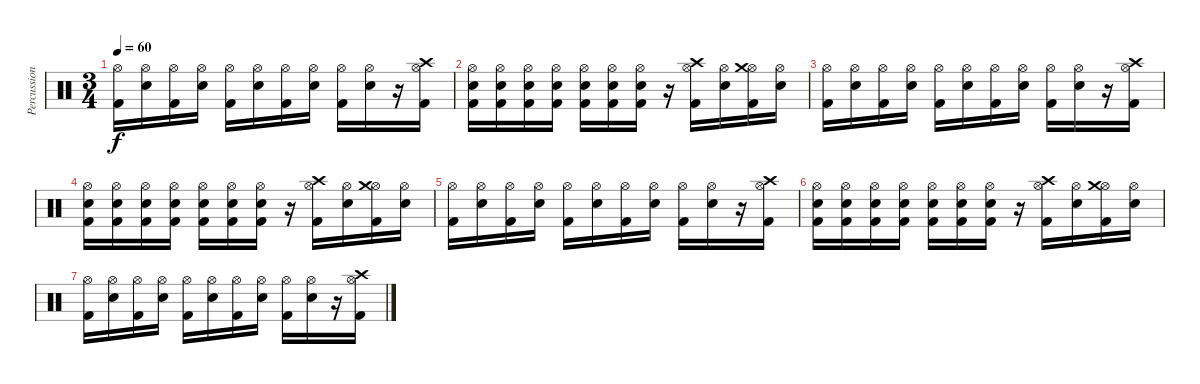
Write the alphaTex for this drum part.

\track ("Percussion" "Percussion") {instrument percussion}
\staff {score}
\articulation defaults
\ts (3 4)
\tempo 60
\clef neutral
\ks c
("Hi-Hat (open)" "Kick (hit) 2").16{dy f} ("Hi-Hat (open)" "Electric Snare (hit)").16 ("Hi-Hat (open)" "Kick (hit) 2").16 ("Hi-Hat (open)" "Electric Snare (hit)").16 ("Hi-Hat (open)" "Kick (hit) 2").16 ("Hi-Hat (open)" "Electric Snare (hit)").16 ("Hi-Hat (open)" "Kick (hit) 2").16 ("Hi-Hat (open)" "Electric Snare (hit)").16 ("Hi-Hat (open)" "Kick (hit) 2").16 ("Hi-Hat (open)" "Electric Snare (hit)").16 r.16 ("Hi-Hat (open)" "Crash high (hit)" "Kick (hit) 2").16 |
("Hi-Hat (open)" "Electric Snare (hit)" "Kick (hit) 2").16 ("Hi-Hat (open)" "Electric Snare (hit)" "Kick (hit) 2").16 ("Hi-Hat (open)" "Electric Snare (hit)" "Kick (hit) 2").16 ("Hi-Hat (open)" "Electric Snare (hit)" "Kick (hit) 2").16 ("Hi-Hat (open)" "Electric Snare (hit)" "Kick (hit) 2").16 ("Hi-Hat (open)" "Electric Snare (hit)" "Kick (hit) 2").16 ("Hi-Hat (open)" "Electric Snare (hit)" "Kick (hit) 2").16 r.16 ("Hi-Hat (open)" "Crash high (hit)" "Kick (hit) 2").16 ("Hi-Hat (open)" "Electric Snare (hit)").16 ("Hi-Hat (open)" "Crash medium (hit)" "Kick (hit) 2").16 ("Hi-Hat (open)" "Electric Snare (hit)").16 |
("Hi-Hat (open)" "Kick (hit) 2").16 ("Hi-Hat (open)" "Electric Snare (hit)").16 ("Hi-Hat (open)" "Kick (hit) 2").16 ("Hi-Hat (open)" "Electric Snare (hit)").16 ("Hi-Hat (open)" "Kick (hit) 2").16 ("Hi-Hat (open)" "Electric Snare (hit)").16 ("Hi-Hat (open)" "Kick (hit) 2").16 ("Hi-Hat (open)" "Electric Snare (hit)").16 ("Hi-Hat (open)" "Kick (hit) 2").16 ("Hi-Hat (open)" "Electric Snare (hit)").16 r.16 ("Hi-Hat (open)" "Crash high (hit)" "Kick (hit) 2").16 |
("Hi-Hat (open)" "Electric Snare (hit)" "Kick (hit) 2").16 ("Hi-Hat (open)" "Electric Snare (hit)" "Kick (hit) 2").16 ("Hi-Hat (open)" "Electric Snare (hit)" "Kick (hit) 2").16 ("Hi-Hat (open)" "Electric Snare (hit)" "Kick (hit) 2").16 ("Hi-Hat (open)" "Electric Snare (hit)" "Kick (hit) 2").16 ("Hi-Hat (open)" "Electric Snare (hit)" "Kick (hit) 2").16 ("Hi-Hat (open)" "Electric Snare (hit)" "Kick (hit) 2").16 r.16 ("Hi-Hat (open)" "Crash high (hit)" "Kick (hit) 2").16 ("Hi-Hat (open)" "Electric Snare (hit)").16 ("Hi-Hat (open)" "Crash medium (hit)" "Kick (hit) 2").16 ("Hi-Hat (open)" "Electric Snare (hit)").16 |
("Hi-Hat (open)" "Kick (hit) 2").16 ("Hi-Hat (open)" "Electric Snare (hit)").16 ("Hi-Hat (open)" "Kick (hit) 2").16 ("Hi-Hat (open)" "Electric Snare (hit)").16 ("Hi-Hat (open)" "Kick (hit) 2").16 ("Hi-Hat (open)" "Electric Snare (hit)").16 ("Hi-Hat (open)" "Kick (hit) 2").16 ("Hi-Hat (open)" "Electric Snare (hit)").16 ("Hi-Hat (open)" "Kick (hit) 2").16 ("Hi-Hat (open)" "Electric Snare (hit)").16 r.16 ("Hi-Hat (open)" "Crash high (hit)" "Kick (hit) 2").16 |
("Hi-Hat (open)" "Electric Snare (hit)" "Kick (hit) 2").16 ("Hi-Hat (open)" "Electric Snare (hit)" "Kick (hit) 2").16 ("Hi-Hat (open)" "Electric Snare (hit)" "Kick (hit) 2").16 ("Hi-Hat (open)" "Electric Snare (hit)" "Kick (hit) 2").16 ("Hi-Hat (open)" "Electric Snare (hit)" "Kick (hit) 2").16 ("Hi-Hat (open)" "Electric Snare (hit)" "Kick (hit) 2").16 ("Hi-Hat (open)" "Electric Snare (hit)" "Kick (hit) 2").16 r.16 ("Hi-Hat (open)" "Crash high (hit)" "Kick (hit) 2").16 ("Hi-Hat (open)" "Electric Snare (hit)").16 ("Hi-Hat (open)" "Crash medium (hit)" "Kick (hit) 2").16 ("Hi-Hat (open)" "Electric Snare (hit)").16 |
("Hi-Hat (open)" "Kick (hit) 2").16 ("Hi-Hat (open)" "Electric Snare (hit)").16 ("Hi-Hat (open)" "Kick (hit) 2").16 ("Hi-Hat (open)" "Electric Snare (hit)").16 ("Hi-Hat (open)" "Kick (hit) 2").16 ("Hi-Hat (open)" "Electric Snare (hit)").16 ("Hi-Hat (open)" "Kick (hit) 2").16 ("Hi-Hat (open)" "Electric Snare (hit)").16 ("Hi-Hat (open)" "Kick (hit) 2").16 ("Hi-Hat (open)" "Electric Snare (hit)").16 r.16 ("Hi-Hat (open)" "Crash high (hit)" "Kick (hit) 2").16
